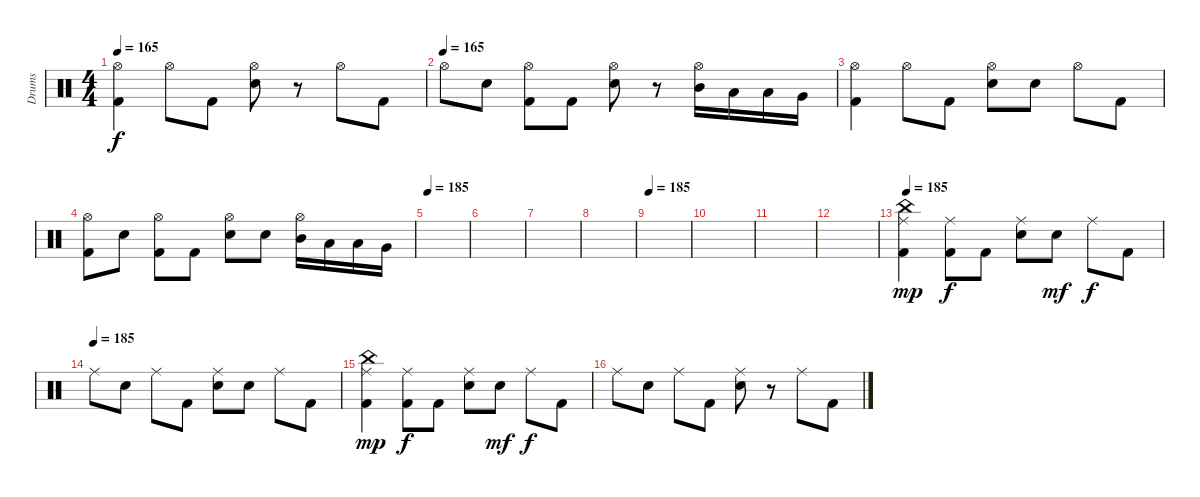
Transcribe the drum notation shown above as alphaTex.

\track ("Drums" "Drums") {instrument percussion}
\staff {score}
\articulation defaults
\ts (4 4)
\tempo 165
\clef neutral
\ks c
("Hi-Hat (open)" "Kick (hit) 2").4{dy f} "Hi-Hat (open)".8 "Kick (hit) 2".8 ("Hi-Hat (open)" "Snare (hit) 2").8 r.8 "Hi-Hat (open)".8 "Kick (hit) 2".8 |
\tempo (165)
"Hi-Hat (open)".8 "Snare (hit) 2".8 ("Hi-Hat (open)" "Kick (hit) 2").8 "Kick (hit) 2".8 ("Hi-Hat (open)" "Snare (hit) 2").8 r.8 ("Hi-Hat (open)" "Mid Tom (hit)").16 "Low Tom (hit)".16 "Low Tom (hit)".16 "Very Low Tom (hit)".16 |
("Hi-Hat (open)" "Kick (hit) 2").4 "Hi-Hat (open)".8 "Kick (hit) 2".8 ("Hi-Hat (open)" "Snare (hit) 2").8 "Snare (hit) 2".8 "Hi-Hat (open)".8 "Kick (hit) 2".8 |
("Hi-Hat (open)" "Kick (hit) 2").8 "Snare (hit) 2".8 ("Hi-Hat (open)" "Kick (hit) 2").8 "Kick (hit) 2".8 ("Hi-Hat (open)" "Snare (hit) 2").8 "Snare (hit) 2".8 ("Hi-Hat (open)" "Mid Tom (hit)").16 "Low Tom (hit)".16 "Low Tom (hit)".16 "Very Low Tom (hit)".16 |
\tempo 185
|
|
|
|
\tempo 185
|
|
|
|
\tempo 185
("Ride (middle)" "China (hit)" "Kick (hit) 2").4{dy mp volume 12} ("Ride (middle)" "Kick (hit) 2").8{dy f} "Kick (hit) 2".8 ("Ride (middle)" "Snare (hit) 2").8 "Snare (hit) 2".8{dy mf} "Ride (middle)".8{dy f} "Kick (hit) 2".8 |
\tempo (185)
"Ride (middle)".8 "Snare (hit) 2".8 "Ride (middle)".8 "Kick (hit) 2".8 ("Ride (middle)" "Snare (hit) 2").8 "Snare (hit) 2".8 "Ride (middle)".8 "Kick (hit) 2".8 |
("Ride (middle)" "China (hit)" "Kick (hit) 2").4{dy mp} ("Ride (middle)" "Kick (hit) 2").8{dy f} "Kick (hit) 2".8 ("Ride (middle)" "Snare (hit) 2").8 "Snare (hit) 2".8{dy mf} "Ride (middle)".8{dy f} "Kick (hit) 2".8 |
"Ride (middle)".8 "Snare (hit) 2".8 "Ride (middle)".8 "Kick (hit) 2".8 ("Ride (middle)" "Snare (hit) 2").8 r.8 "Ride (middle)".8 "Kick (hit) 2".8
